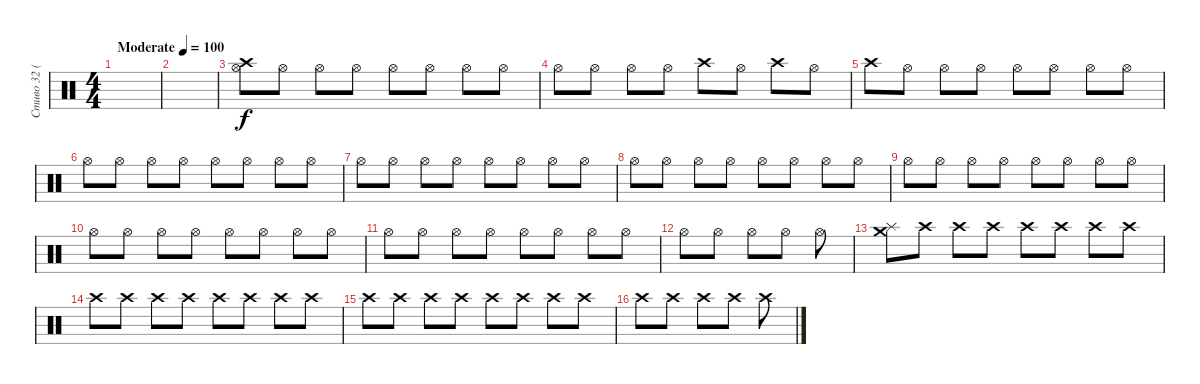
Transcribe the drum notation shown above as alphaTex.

\track ("Стиво 32 (Тарелки)" "Стиво 32 (") {instrument percussion}
\staff {score}
\articulation defaults
\ts (4 4)
\tempo (100 "Moderate")
\clef neutral
\ks c
|
|
("Hi-Hat (open)" "Crash high (hit)").8 "Hi-Hat (open)".8 "Hi-Hat (open)".8 "Hi-Hat (open)".8 "Hi-Hat (open)".8 "Hi-Hat (open)".8 "Hi-Hat (open)".8 "Hi-Hat (open)".8 |
"Hi-Hat (open)".8 "Hi-Hat (open)".8 "Hi-Hat (open)".8 "Hi-Hat (open)".8 "Crash high (hit)".8 "Hi-Hat (open)".8 "Crash high (hit)".8 "Hi-Hat (open)".8 |
"Crash high (hit)".8 "Hi-Hat (open)".8 "Hi-Hat (open)".8 "Hi-Hat (open)".8 "Hi-Hat (open)".8 "Hi-Hat (open)".8 "Hi-Hat (open)".8 "Hi-Hat (open)".8 |
"Hi-Hat (open)".8 "Hi-Hat (open)".8 "Hi-Hat (open)".8 "Hi-Hat (open)".8 "Hi-Hat (open)".8 "Hi-Hat (open)".8 "Hi-Hat (open)".8 "Hi-Hat (open)".8 |
"Hi-Hat (open)".8 "Hi-Hat (open)".8 "Hi-Hat (open)".8 "Hi-Hat (open)".8 "Hi-Hat (open)".8 "Hi-Hat (open)".8 "Hi-Hat (open)".8 "Hi-Hat (open)".8 |
"Hi-Hat (open)".8 "Hi-Hat (open)".8 "Hi-Hat (open)".8 "Hi-Hat (open)".8 "Hi-Hat (open)".8 "Hi-Hat (open)".8 "Hi-Hat (open)".8 "Hi-Hat (open)".8 |
"Hi-Hat (open)".8 "Hi-Hat (open)".8 "Hi-Hat (open)".8 "Hi-Hat (open)".8 "Hi-Hat (open)".8 "Hi-Hat (open)".8 "Hi-Hat (open)".8 "Hi-Hat (open)".8 |
"Hi-Hat (open)".8 "Hi-Hat (open)".8 "Hi-Hat (open)".8 "Hi-Hat (open)".8 "Hi-Hat (open)".8 "Hi-Hat (open)".8 "Hi-Hat (open)".8 "Hi-Hat (open)".8 |
"Hi-Hat (open)".8 "Hi-Hat (open)".8 "Hi-Hat (open)".8 "Hi-Hat (open)".8 "Hi-Hat (open)".8 "Hi-Hat (open)".8 "Hi-Hat (open)".8 "Hi-Hat (open)".8 |
"Hi-Hat (open)".8 "Hi-Hat (open)".8 "Hi-Hat (open)".8 "Hi-Hat (open)".8 "Hi-Hat (open)".8 |
("Splash (hit)" "Crash medium (hit)").8 "Crash high (hit)".8 "Crash high (hit)".8 "Crash high (hit)".8 "Crash high (hit)".8 "Crash high (hit)".8 "Crash high (hit)".8 "Crash high (hit)".8 |
"Crash high (hit)".8 "Crash high (hit)".8 "Crash high (hit)".8 "Crash high (hit)".8 "Crash high (hit)".8 "Crash high (hit)".8 "Crash high (hit)".8 "Crash high (hit)".8 |
"Crash high (hit)".8 "Crash high (hit)".8 "Crash high (hit)".8 "Crash high (hit)".8 "Crash high (hit)".8 "Crash high (hit)".8 "Crash high (hit)".8 "Crash high (hit)".8 |
"Crash high (hit)".8 "Crash high (hit)".8 "Crash high (hit)".8 "Crash high (hit)".8 "Crash high (hit)".8
